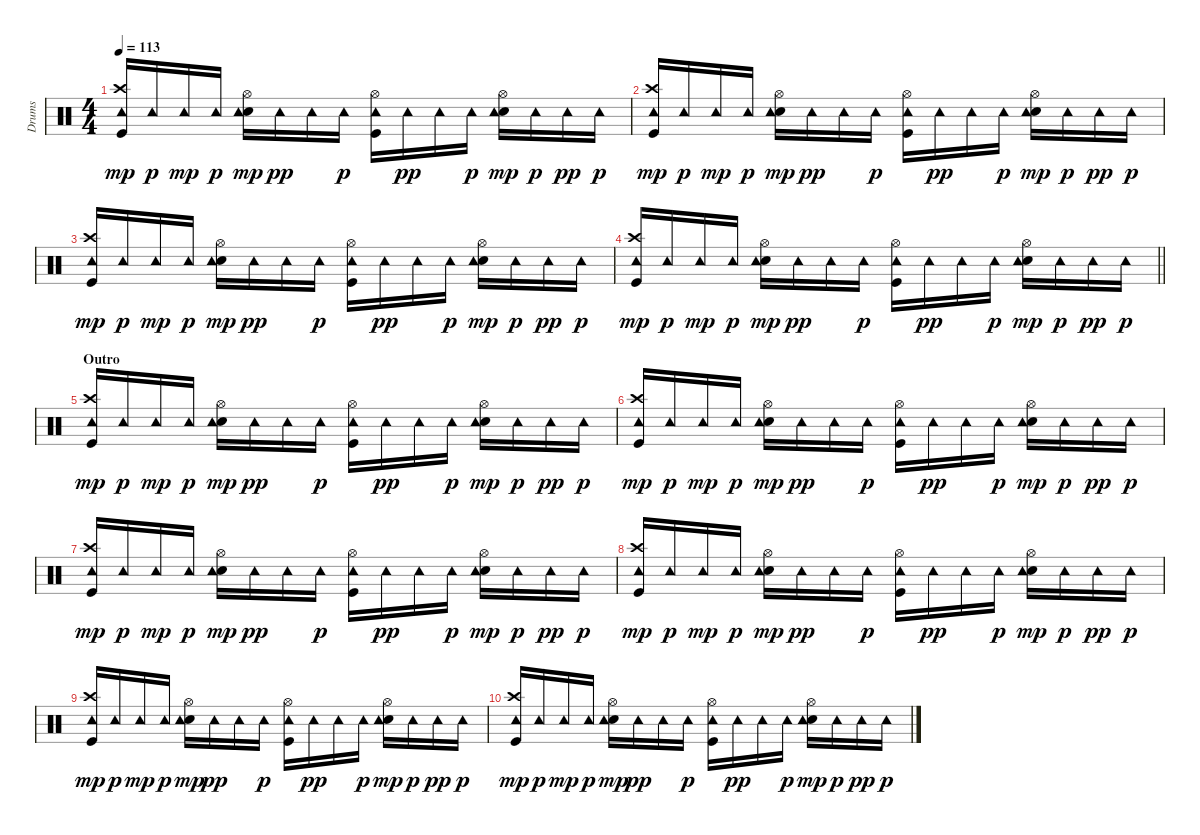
\track ("Drums" "Drums") {instrument percussion}
\staff {score}
\articulation defaults
\ts (4 4)
\tempo 113
\clef neutral
\ks c
("Kick (hit)" "Crash high (hit)" "Tambourine (hit)").16{dy mp} "Tambourine (hit)".16{dy p} "Tambourine (hit)".16{dy mp} "Tambourine (hit)".16{dy p} ("Electric Snare (hit)" "Hi-Hat (open)" "Tambourine (hit)").16{dy mp} "Tambourine (hit)".16{dy pp} "Tambourine (hit)".16 "Tambourine (hit)".16{dy p} ("Kick (hit)" "Hi-Hat (open)" "Tambourine (hit)").16 "Tambourine (hit)".16{dy pp} "Tambourine (hit)".16 "Tambourine (hit)".16{dy p} ("Electric Snare (hit)" "Hi-Hat (open)" "Tambourine (hit)").16{dy mp} "Tambourine (hit)".16{dy p} "Tambourine (hit)".16{dy pp} "Tambourine (hit)".16{dy p} |
("Kick (hit)" "Crash high (hit)" "Tambourine (hit)").16{dy mp} "Tambourine (hit)".16{dy p} "Tambourine (hit)".16{dy mp} "Tambourine (hit)".16{dy p} ("Electric Snare (hit)" "Hi-Hat (open)" "Tambourine (hit)").16{dy mp} "Tambourine (hit)".16{dy pp} "Tambourine (hit)".16 "Tambourine (hit)".16{dy p} ("Kick (hit)" "Hi-Hat (open)" "Tambourine (hit)").16 "Tambourine (hit)".16{dy pp} "Tambourine (hit)".16 "Tambourine (hit)".16{dy p} ("Electric Snare (hit)" "Hi-Hat (open)" "Tambourine (hit)").16{dy mp} "Tambourine (hit)".16{dy p} "Tambourine (hit)".16{dy pp} "Tambourine (hit)".16{dy p} |
("Kick (hit)" "Crash high (hit)" "Tambourine (hit)").16{dy mp} "Tambourine (hit)".16{dy p} "Tambourine (hit)".16{dy mp} "Tambourine (hit)".16{dy p} ("Electric Snare (hit)" "Hi-Hat (open)" "Tambourine (hit)").16{dy mp} "Tambourine (hit)".16{dy pp} "Tambourine (hit)".16 "Tambourine (hit)".16{dy p} ("Kick (hit)" "Hi-Hat (open)" "Tambourine (hit)").16 "Tambourine (hit)".16{dy pp} "Tambourine (hit)".16 "Tambourine (hit)".16{dy p} ("Electric Snare (hit)" "Hi-Hat (open)" "Tambourine (hit)").16{dy mp} "Tambourine (hit)".16{dy p} "Tambourine (hit)".16{dy pp} "Tambourine (hit)".16{dy p} |
\barLineRight lightlight
("Kick (hit)" "Crash high (hit)" "Tambourine (hit)").16{dy mp} "Tambourine (hit)".16{dy p} "Tambourine (hit)".16{dy mp} "Tambourine (hit)".16{dy p} ("Electric Snare (hit)" "Hi-Hat (open)" "Tambourine (hit)").16{dy mp} "Tambourine (hit)".16{dy pp} "Tambourine (hit)".16 "Tambourine (hit)".16{dy p} ("Kick (hit)" "Hi-Hat (open)" "Tambourine (hit)").16 "Tambourine (hit)".16{dy pp} "Tambourine (hit)".16 "Tambourine (hit)".16{dy p} ("Electric Snare (hit)" "Hi-Hat (open)" "Tambourine (hit)").16{dy mp} "Tambourine (hit)".16{dy p} "Tambourine (hit)".16{dy pp} "Tambourine (hit)".16{dy p} |
\section ("" "Outro")
("Kick (hit)" "Crash high (hit)" "Tambourine (hit)").16{dy mp} "Tambourine (hit)".16{dy p} "Tambourine (hit)".16{dy mp} "Tambourine (hit)".16{dy p} ("Electric Snare (hit)" "Hi-Hat (open)" "Tambourine (hit)").16{dy mp} "Tambourine (hit)".16{dy pp} "Tambourine (hit)".16 "Tambourine (hit)".16{dy p} ("Kick (hit)" "Hi-Hat (open)" "Tambourine (hit)").16 "Tambourine (hit)".16{dy pp} "Tambourine (hit)".16 "Tambourine (hit)".16{dy p} ("Electric Snare (hit)" "Hi-Hat (open)" "Tambourine (hit)").16{dy mp} "Tambourine (hit)".16{dy p} "Tambourine (hit)".16{dy pp} "Tambourine (hit)".16{dy p} |
("Kick (hit)" "Crash high (hit)" "Tambourine (hit)").16{dy mp} "Tambourine (hit)".16{dy p} "Tambourine (hit)".16{dy mp} "Tambourine (hit)".16{dy p} ("Electric Snare (hit)" "Hi-Hat (open)" "Tambourine (hit)").16{dy mp} "Tambourine (hit)".16{dy pp} "Tambourine (hit)".16 "Tambourine (hit)".16{dy p} ("Kick (hit)" "Hi-Hat (open)" "Tambourine (hit)").16 "Tambourine (hit)".16{dy pp} "Tambourine (hit)".16 "Tambourine (hit)".16{dy p} ("Electric Snare (hit)" "Hi-Hat (open)" "Tambourine (hit)").16{dy mp} "Tambourine (hit)".16{dy p} "Tambourine (hit)".16{dy pp} "Tambourine (hit)".16{dy p} |
("Kick (hit)" "Crash high (hit)" "Tambourine (hit)").16{dy mp} "Tambourine (hit)".16{dy p} "Tambourine (hit)".16{dy mp} "Tambourine (hit)".16{dy p} ("Electric Snare (hit)" "Hi-Hat (open)" "Tambourine (hit)").16{dy mp} "Tambourine (hit)".16{dy pp} "Tambourine (hit)".16 "Tambourine (hit)".16{dy p} ("Kick (hit)" "Hi-Hat (open)" "Tambourine (hit)").16 "Tambourine (hit)".16{dy pp} "Tambourine (hit)".16 "Tambourine (hit)".16{dy p} ("Electric Snare (hit)" "Hi-Hat (open)" "Tambourine (hit)").16{dy mp} "Tambourine (hit)".16{dy p} "Tambourine (hit)".16{dy pp} "Tambourine (hit)".16{dy p} |
("Kick (hit)" "Crash high (hit)" "Tambourine (hit)").16{dy mp} "Tambourine (hit)".16{dy p} "Tambourine (hit)".16{dy mp} "Tambourine (hit)".16{dy p} ("Electric Snare (hit)" "Hi-Hat (open)" "Tambourine (hit)").16{dy mp} "Tambourine (hit)".16{dy pp} "Tambourine (hit)".16 "Tambourine (hit)".16{dy p} ("Kick (hit)" "Hi-Hat (open)" "Tambourine (hit)").16 "Tambourine (hit)".16{dy pp} "Tambourine (hit)".16 "Tambourine (hit)".16{dy p} ("Electric Snare (hit)" "Hi-Hat (open)" "Tambourine (hit)").16{dy mp} "Tambourine (hit)".16{dy p} "Tambourine (hit)".16{dy pp} "Tambourine (hit)".16{dy p} |
("Kick (hit)" "Crash high (hit)" "Tambourine (hit)").16{dy mp} "Tambourine (hit)".16{dy p} "Tambourine (hit)".16{dy mp} "Tambourine (hit)".16{dy p} ("Electric Snare (hit)" "Hi-Hat (open)" "Tambourine (hit)").16{dy mp} "Tambourine (hit)".16{dy pp} "Tambourine (hit)".16 "Tambourine (hit)".16{dy p} ("Kick (hit)" "Hi-Hat (open)" "Tambourine (hit)").16 "Tambourine (hit)".16{dy pp} "Tambourine (hit)".16 "Tambourine (hit)".16{dy p} ("Electric Snare (hit)" "Hi-Hat (open)" "Tambourine (hit)").16{dy mp} "Tambourine (hit)".16{dy p} "Tambourine (hit)".16{dy pp} "Tambourine (hit)".16{dy p} |
("Kick (hit)" "Crash high (hit)" "Tambourine (hit)").16{dy mp} "Tambourine (hit)".16{dy p} "Tambourine (hit)".16{dy mp} "Tambourine (hit)".16{dy p} ("Electric Snare (hit)" "Hi-Hat (open)" "Tambourine (hit)").16{dy mp} "Tambourine (hit)".16{dy pp} "Tambourine (hit)".16 "Tambourine (hit)".16{dy p} ("Kick (hit)" "Hi-Hat (open)" "Tambourine (hit)").16 "Tambourine (hit)".16{dy pp} "Tambourine (hit)".16 "Tambourine (hit)".16{dy p} ("Electric Snare (hit)" "Hi-Hat (open)" "Tambourine (hit)").16{dy mp} "Tambourine (hit)".16{dy p} "Tambourine (hit)".16{dy pp} "Tambourine (hit)".16{dy p}
